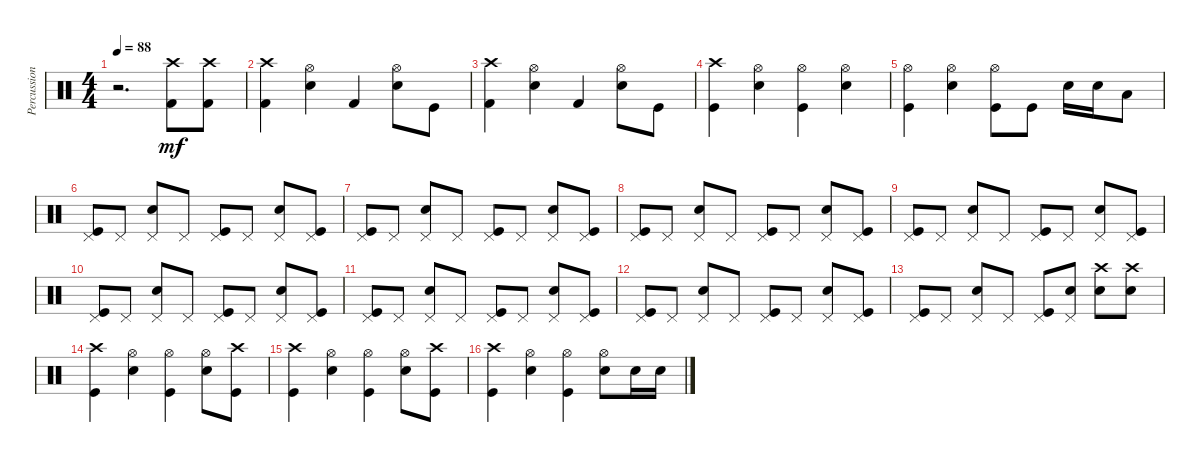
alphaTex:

\track ("Percussion" "Percussion") {instrument percussion}
\staff {score}
\articulation defaults
\ts (4 4)
\tempo 88
\clef neutral
\ks c
r.2{d dy mf} ("Kick (hit) 2" "Crash high (hit)").8 ("Kick (hit) 2" "Crash high (hit)").8 |
("Kick (hit) 2" "Crash high (hit)").4 ("Snare (hit) 2" "Hi-Hat (open)").4 "Kick (hit) 2".4 ("Snare (hit) 2" "Hi-Hat (open)").8 "Kick (hit)".8 |
("Kick (hit) 2" "Crash high (hit)").4 ("Snare (hit) 2" "Hi-Hat (open)").4 "Kick (hit) 2".4 ("Snare (hit) 2" "Hi-Hat (open)").8 "Kick (hit)".8 |
("Kick (hit)" "Crash high (hit)").4 ("Snare (hit) 2" "Hi-Hat (open)").4 ("Kick (hit)" "Hi-Hat (open)").4 ("Snare (hit) 2" "Hi-Hat (open)").4 |
("Kick (hit)" "Hi-Hat (open)").4 ("Snare (hit) 2" "Hi-Hat (open)").4 ("Kick (hit)" "Hi-Hat (open)").8 "Kick (hit)".8 "Snare (hit) 2".16 "Snare (hit) 2".16 "Low Floor Tom (hit)".8 |
("Kick (hit)" "Pedal Hi-Hat (hit)").8 "Pedal Hi-Hat (hit)".8 ("Snare (hit) 2" "Pedal Hi-Hat (hit)").8 "Pedal Hi-Hat (hit)".8 ("Kick (hit)" "Pedal Hi-Hat (hit)").8 "Pedal Hi-Hat (hit)".8 ("Snare (hit) 2" "Pedal Hi-Hat (hit)").8 ("Kick (hit)" "Pedal Hi-Hat (hit)").8 |
("Kick (hit)" "Pedal Hi-Hat (hit)").8 "Pedal Hi-Hat (hit)".8 ("Snare (hit) 2" "Pedal Hi-Hat (hit)").8 "Pedal Hi-Hat (hit)".8 ("Kick (hit)" "Pedal Hi-Hat (hit)").8 "Pedal Hi-Hat (hit)".8 ("Snare (hit) 2" "Pedal Hi-Hat (hit)").8 ("Kick (hit)" "Pedal Hi-Hat (hit)").8 |
("Kick (hit)" "Pedal Hi-Hat (hit)").8 "Pedal Hi-Hat (hit)".8 ("Snare (hit) 2" "Pedal Hi-Hat (hit)").8 "Pedal Hi-Hat (hit)".8 ("Kick (hit)" "Pedal Hi-Hat (hit)").8 "Pedal Hi-Hat (hit)".8 ("Snare (hit) 2" "Pedal Hi-Hat (hit)").8 ("Kick (hit)" "Pedal Hi-Hat (hit)").8 |
("Kick (hit)" "Pedal Hi-Hat (hit)").8 "Pedal Hi-Hat (hit)".8 ("Snare (hit) 2" "Pedal Hi-Hat (hit)").8 "Pedal Hi-Hat (hit)".8 ("Kick (hit)" "Pedal Hi-Hat (hit)").8 "Pedal Hi-Hat (hit)".8 ("Snare (hit) 2" "Pedal Hi-Hat (hit)").8 ("Kick (hit)" "Pedal Hi-Hat (hit)").8 |
("Kick (hit)" "Pedal Hi-Hat (hit)").8 "Pedal Hi-Hat (hit)".8 ("Snare (hit) 2" "Pedal Hi-Hat (hit)").8 "Pedal Hi-Hat (hit)".8 ("Kick (hit)" "Pedal Hi-Hat (hit)").8 "Pedal Hi-Hat (hit)".8 ("Snare (hit) 2" "Pedal Hi-Hat (hit)").8 ("Kick (hit)" "Pedal Hi-Hat (hit)").8 |
("Kick (hit)" "Pedal Hi-Hat (hit)").8 "Pedal Hi-Hat (hit)".8 ("Snare (hit) 2" "Pedal Hi-Hat (hit)").8 "Pedal Hi-Hat (hit)".8 ("Kick (hit)" "Pedal Hi-Hat (hit)").8 "Pedal Hi-Hat (hit)".8 ("Snare (hit) 2" "Pedal Hi-Hat (hit)").8 ("Kick (hit)" "Pedal Hi-Hat (hit)").8 |
("Kick (hit)" "Pedal Hi-Hat (hit)").8 "Pedal Hi-Hat (hit)".8 ("Snare (hit) 2" "Pedal Hi-Hat (hit)").8 "Pedal Hi-Hat (hit)".8 ("Kick (hit)" "Pedal Hi-Hat (hit)").8 "Pedal Hi-Hat (hit)".8 ("Snare (hit) 2" "Pedal Hi-Hat (hit)").8 ("Kick (hit)" "Pedal Hi-Hat (hit)").8 |
("Kick (hit)" "Pedal Hi-Hat (hit)").8 "Pedal Hi-Hat (hit)".8 ("Snare (hit) 2" "Pedal Hi-Hat (hit)").8 "Pedal Hi-Hat (hit)".8 ("Kick (hit)" "Pedal Hi-Hat (hit)").8 ("Snare (hit) 2" "Pedal Hi-Hat (hit)").8 ("Snare (hit) 2" "Crash high (hit)").8 ("Snare (hit) 2" "Crash high (hit)").8 |
("Kick (hit)" "Crash high (hit)").4 ("Snare (hit) 2" "Hi-Hat (open)").4 ("Kick (hit)" "Hi-Hat (open)").4 ("Snare (hit) 2" "Hi-Hat (open)").8 ("Kick (hit)" "Crash high (hit)").8 |
("Kick (hit)" "Crash high (hit)").4 ("Snare (hit) 2" "Hi-Hat (open)").4 ("Kick (hit)" "Hi-Hat (open)").4 ("Snare (hit) 2" "Hi-Hat (open)").8 ("Kick (hit)" "Crash high (hit)").8 |
("Kick (hit)" "Crash high (hit)").4 ("Snare (hit) 2" "Hi-Hat (open)").4 ("Kick (hit)" "Hi-Hat (open)").4 ("Snare (hit) 2" "Hi-Hat (open)").8 "Snare (hit) 2".16 "Snare (hit) 2".16
